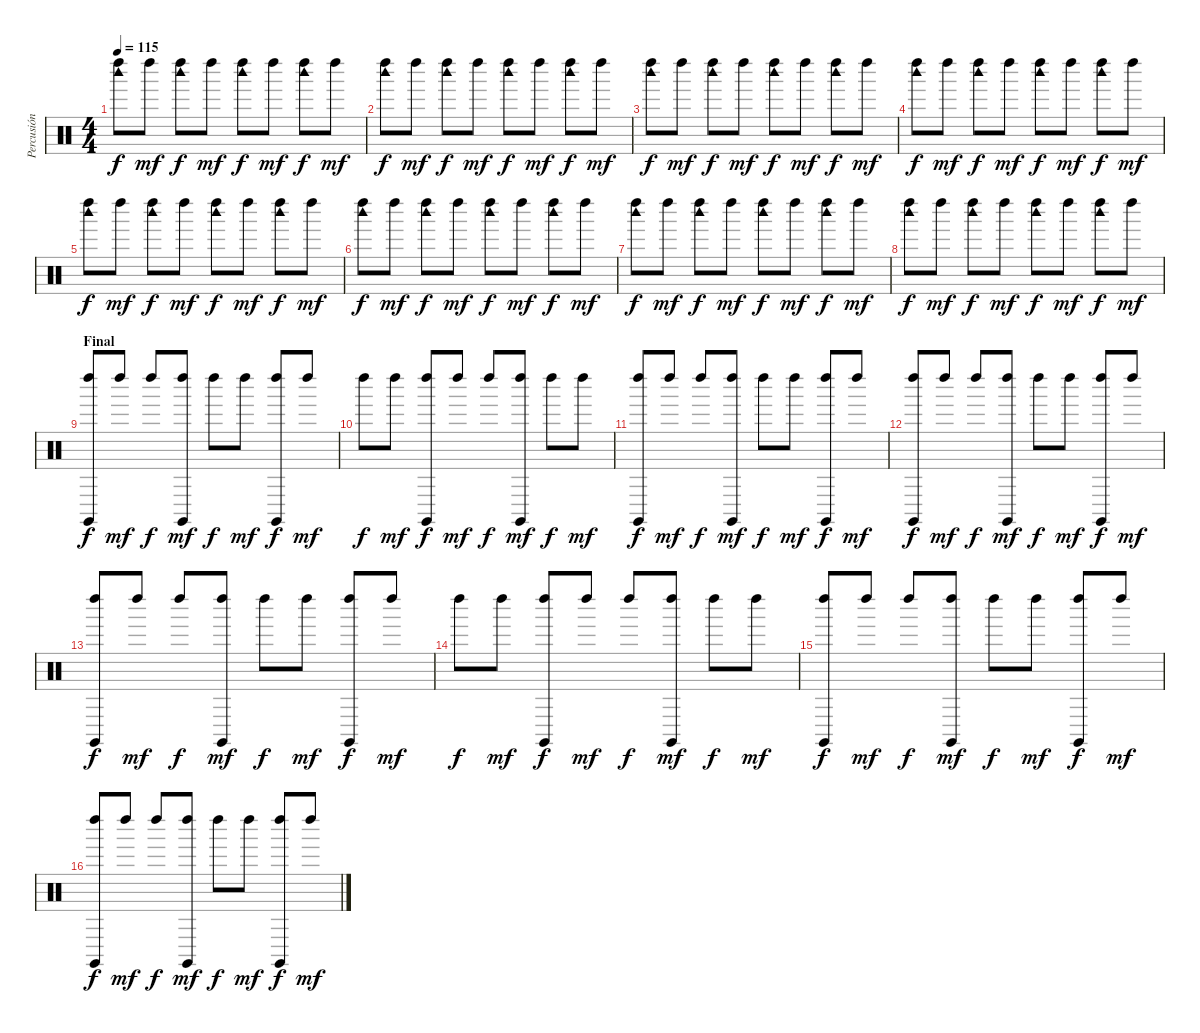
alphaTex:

\track ("Percusión" "Percusión") {instrument percussion}
\staff {score}
\articulation defaults
\ts (4 4)
\tempo 115
\clef neutral
\ks c
("Woodblock high (hit)" "Left Maraca (hit)").8{dy f} "Left Maraca (hit)".8{dy mf} ("Woodblock high (hit)" "Left Maraca (hit)").8{dy f} "Left Maraca (hit)".8{dy mf} ("Woodblock high (hit)" "Left Maraca (hit)").8{dy f} "Left Maraca (hit)".8{dy mf} ("Woodblock high (hit)" "Left Maraca (hit)").8{dy f} "Left Maraca (hit)".8{dy mf} |
("Woodblock high (hit)" "Left Maraca (hit)").8{dy f} "Left Maraca (hit)".8{dy mf} ("Woodblock high (hit)" "Left Maraca (hit)").8{dy f} "Left Maraca (hit)".8{dy mf} ("Woodblock high (hit)" "Left Maraca (hit)").8{dy f} "Left Maraca (hit)".8{dy mf} ("Woodblock high (hit)" "Left Maraca (hit)").8{dy f} "Left Maraca (hit)".8{dy mf} |
("Woodblock high (hit)" "Left Maraca (hit)").8{dy f} "Left Maraca (hit)".8{dy mf} ("Woodblock high (hit)" "Left Maraca (hit)").8{dy f} "Left Maraca (hit)".8{dy mf} ("Woodblock high (hit)" "Left Maraca (hit)").8{dy f} "Left Maraca (hit)".8{dy mf} ("Woodblock high (hit)" "Left Maraca (hit)").8{dy f} "Left Maraca (hit)".8{dy mf} |
("Woodblock high (hit)" "Left Maraca (hit)").8{dy f} "Left Maraca (hit)".8{dy mf} ("Woodblock high (hit)" "Left Maraca (hit)").8{dy f} "Left Maraca (hit)".8{dy mf} ("Woodblock high (hit)" "Left Maraca (hit)").8{dy f} "Left Maraca (hit)".8{dy mf} ("Woodblock high (hit)" "Left Maraca (hit)").8{dy f} "Left Maraca (hit)".8{dy mf} |
("Woodblock high (hit)" "Left Maraca (hit)").8{dy f} "Left Maraca (hit)".8{dy mf} ("Woodblock high (hit)" "Left Maraca (hit)").8{dy f} "Left Maraca (hit)".8{dy mf} ("Woodblock high (hit)" "Left Maraca (hit)").8{dy f} "Left Maraca (hit)".8{dy mf} ("Woodblock high (hit)" "Left Maraca (hit)").8{dy f} "Left Maraca (hit)".8{dy mf} |
("Woodblock high (hit)" "Left Maraca (hit)").8{dy f} "Left Maraca (hit)".8{dy mf} ("Woodblock high (hit)" "Left Maraca (hit)").8{dy f} "Left Maraca (hit)".8{dy mf} ("Woodblock high (hit)" "Left Maraca (hit)").8{dy f} "Left Maraca (hit)".8{dy mf} ("Woodblock high (hit)" "Left Maraca (hit)").8{dy f} "Left Maraca (hit)".8{dy mf} |
("Woodblock high (hit)" "Left Maraca (hit)").8{dy f} "Left Maraca (hit)".8{dy mf} ("Woodblock high (hit)" "Left Maraca (hit)").8{dy f} "Left Maraca (hit)".8{dy mf} ("Woodblock high (hit)" "Left Maraca (hit)").8{dy f} "Left Maraca (hit)".8{dy mf} ("Woodblock high (hit)" "Left Maraca (hit)").8{dy f} "Left Maraca (hit)".8{dy mf} |
("Woodblock high (hit)" "Left Maraca (hit)").8{dy f} "Left Maraca (hit)".8{dy mf} ("Woodblock high (hit)" "Left Maraca (hit)").8{dy f} "Left Maraca (hit)".8{dy mf} ("Woodblock high (hit)" "Left Maraca (hit)").8{dy f} "Left Maraca (hit)".8{dy mf} ("Woodblock high (hit)" "Left Maraca (hit)").8{dy f} "Left Maraca (hit)".8{dy mf} |
\section ("" "Final")
("Claves (hit)" "Left Maraca (hit)").8{dy f} "Left Maraca (hit)".8{dy mf} "Left Maraca (hit)".8{dy f} ("Claves (hit)" "Left Maraca (hit)").8{dy mf} "Left Maraca (hit)".8{dy f} "Left Maraca (hit)".8{dy mf} ("Claves (hit)" "Left Maraca (hit)").8{dy f} "Left Maraca (hit)".8{dy mf} |
"Left Maraca (hit)".8{dy f} "Left Maraca (hit)".8{dy mf} ("Claves (hit)" "Left Maraca (hit)").8{dy f} "Left Maraca (hit)".8{dy mf} "Left Maraca (hit)".8{dy f} ("Claves (hit)" "Left Maraca (hit)").8{dy mf} "Left Maraca (hit)".8{dy f} "Left Maraca (hit)".8{dy mf} |
("Claves (hit)" "Left Maraca (hit)").8{dy f} "Left Maraca (hit)".8{dy mf} "Left Maraca (hit)".8{dy f} ("Claves (hit)" "Left Maraca (hit)").8{dy mf} "Left Maraca (hit)".8{dy f} "Left Maraca (hit)".8{dy mf} ("Claves (hit)" "Left Maraca (hit)").8{dy f} "Left Maraca (hit)".8{dy mf} |
("Claves (hit)" "Left Maraca (hit)").8{dy f} "Left Maraca (hit)".8{dy mf} "Left Maraca (hit)".8{dy f} ("Claves (hit)" "Left Maraca (hit)").8{dy mf} "Left Maraca (hit)".8{dy f} "Left Maraca (hit)".8{dy mf} ("Claves (hit)" "Left Maraca (hit)").8{dy f} "Left Maraca (hit)".8{dy mf} |
("Claves (hit)" "Left Maraca (hit)").8{dy f} "Left Maraca (hit)".8{dy mf} "Left Maraca (hit)".8{dy f} ("Claves (hit)" "Left Maraca (hit)").8{dy mf} "Left Maraca (hit)".8{dy f} "Left Maraca (hit)".8{dy mf} ("Claves (hit)" "Left Maraca (hit)").8{dy f} "Left Maraca (hit)".8{dy mf} |
"Left Maraca (hit)".8{dy f} "Left Maraca (hit)".8{dy mf} ("Claves (hit)" "Left Maraca (hit)").8{dy f} "Left Maraca (hit)".8{dy mf} "Left Maraca (hit)".8{dy f} ("Claves (hit)" "Left Maraca (hit)").8{dy mf} "Left Maraca (hit)".8{dy f} "Left Maraca (hit)".8{dy mf} |
("Claves (hit)" "Left Maraca (hit)").8{dy f} "Left Maraca (hit)".8{dy mf} "Left Maraca (hit)".8{dy f} ("Claves (hit)" "Left Maraca (hit)").8{dy mf} "Left Maraca (hit)".8{dy f} "Left Maraca (hit)".8{dy mf} ("Claves (hit)" "Left Maraca (hit)").8{dy f} "Left Maraca (hit)".8{dy mf} |
("Claves (hit)" "Left Maraca (hit)").8{dy f} "Left Maraca (hit)".8{dy mf} "Left Maraca (hit)".8{dy f} ("Claves (hit)" "Left Maraca (hit)").8{dy mf} "Left Maraca (hit)".8{dy f} "Left Maraca (hit)".8{dy mf} ("Claves (hit)" "Left Maraca (hit)").8{dy f} "Left Maraca (hit)".8{dy mf}
